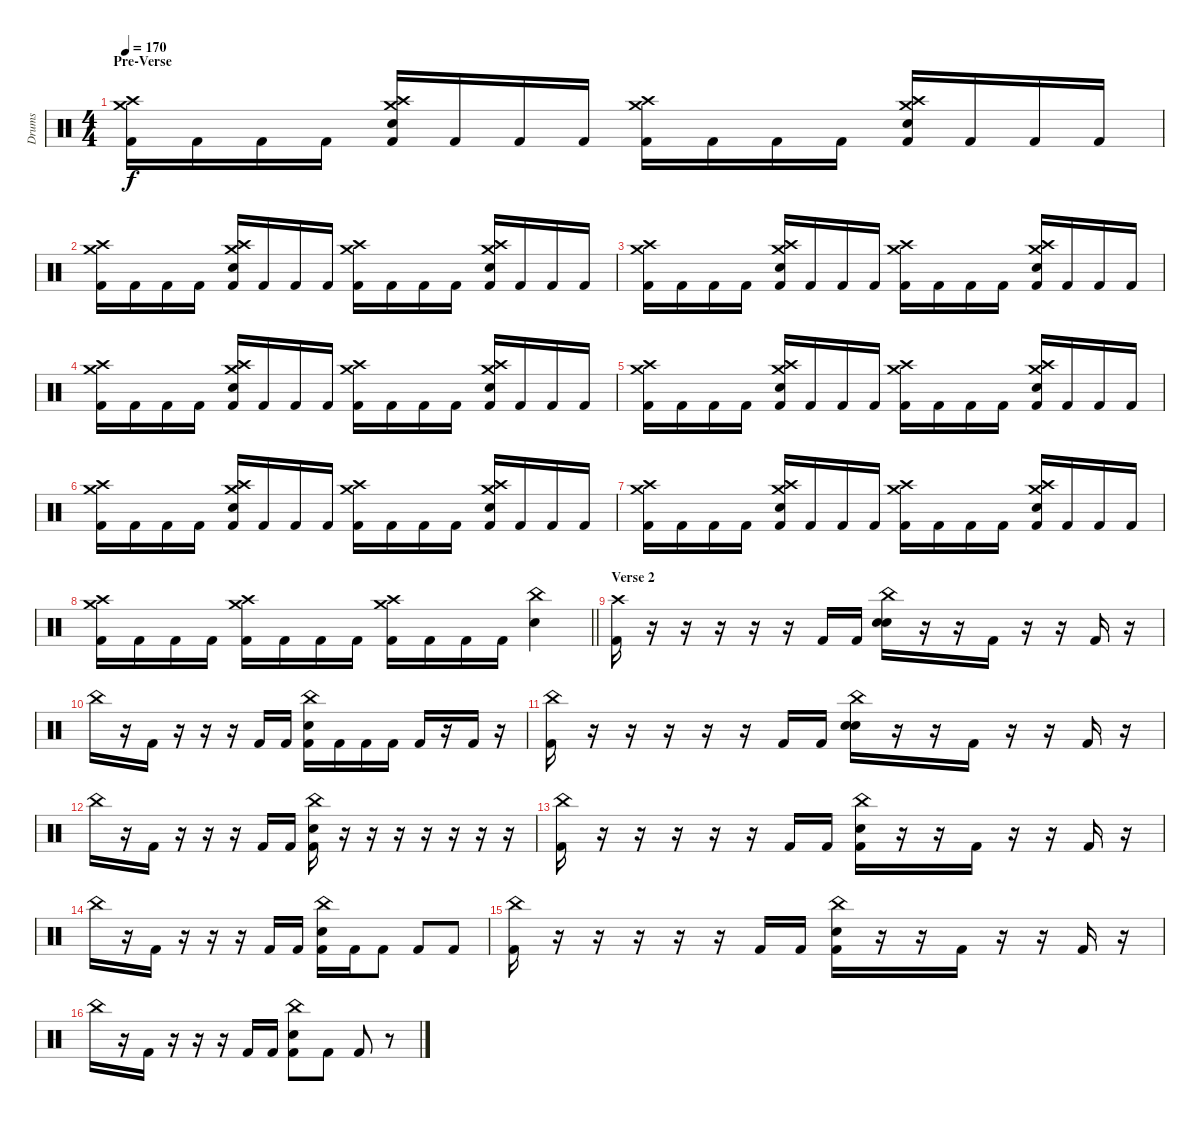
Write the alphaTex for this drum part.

\track ("Drums" "Drums") {instrument percussion}
\staff {score}
\articulation defaults
\ts (4 4)
\section ("" "Pre-Verse")
\tempo 170
\clef neutral
\ks c
("Kick (hit) 2" "Crash high (hit)" "Crash medium (hit)").16{dy f} "Kick (hit) 2".16 "Kick (hit) 2".16 "Kick (hit) 2".16 ("Kick (hit) 2" "Crash high (hit)" "Electric Snare (hit)" "Crash medium (hit)").16 "Kick (hit) 2".16 "Kick (hit) 2".16 "Kick (hit) 2".16 ("Kick (hit) 2" "Crash high (hit)" "Crash medium (hit)").16 "Kick (hit) 2".16 "Kick (hit) 2".16 "Kick (hit) 2".16 ("Kick (hit) 2" "Crash high (hit)" "Electric Snare (hit)" "Crash medium (hit)").16 "Kick (hit) 2".16 "Kick (hit) 2".16 "Kick (hit) 2".16 |
("Kick (hit) 2" "Crash high (hit)" "Crash medium (hit)").16 "Kick (hit) 2".16 "Kick (hit) 2".16 "Kick (hit) 2".16 ("Kick (hit) 2" "Crash high (hit)" "Electric Snare (hit)" "Crash medium (hit)").16 "Kick (hit) 2".16 "Kick (hit) 2".16 "Kick (hit) 2".16 ("Kick (hit) 2" "Crash high (hit)" "Crash medium (hit)").16 "Kick (hit) 2".16 "Kick (hit) 2".16 "Kick (hit) 2".16 ("Kick (hit) 2" "Crash high (hit)" "Electric Snare (hit)" "Crash medium (hit)").16 "Kick (hit) 2".16 "Kick (hit) 2".16 "Kick (hit) 2".16 |
("Kick (hit) 2" "Crash high (hit)" "Crash medium (hit)").16 "Kick (hit) 2".16 "Kick (hit) 2".16 "Kick (hit) 2".16 ("Kick (hit) 2" "Crash high (hit)" "Electric Snare (hit)" "Crash medium (hit)").16 "Kick (hit) 2".16 "Kick (hit) 2".16 "Kick (hit) 2".16 ("Kick (hit) 2" "Crash high (hit)" "Crash medium (hit)").16 "Kick (hit) 2".16 "Kick (hit) 2".16 "Kick (hit) 2".16 ("Kick (hit) 2" "Crash high (hit)" "Electric Snare (hit)" "Crash medium (hit)").16 "Kick (hit) 2".16 "Kick (hit) 2".16 "Kick (hit) 2".16 |
("Kick (hit) 2" "Crash high (hit)" "Crash medium (hit)").16 "Kick (hit) 2".16 "Kick (hit) 2".16 "Kick (hit) 2".16 ("Kick (hit) 2" "Crash high (hit)" "Electric Snare (hit)" "Crash medium (hit)").16 "Kick (hit) 2".16 "Kick (hit) 2".16 "Kick (hit) 2".16 ("Kick (hit) 2" "Crash high (hit)" "Crash medium (hit)").16 "Kick (hit) 2".16 "Kick (hit) 2".16 "Kick (hit) 2".16 ("Kick (hit) 2" "Crash high (hit)" "Electric Snare (hit)" "Crash medium (hit)").16 "Kick (hit) 2".16 "Kick (hit) 2".16 "Kick (hit) 2".16 |
("Kick (hit) 2" "Crash high (hit)" "Crash medium (hit)").16 "Kick (hit) 2".16 "Kick (hit) 2".16 "Kick (hit) 2".16 ("Kick (hit) 2" "Crash high (hit)" "Electric Snare (hit)" "Crash medium (hit)").16 "Kick (hit) 2".16 "Kick (hit) 2".16 "Kick (hit) 2".16 ("Kick (hit) 2" "Crash high (hit)" "Crash medium (hit)").16 "Kick (hit) 2".16 "Kick (hit) 2".16 "Kick (hit) 2".16 ("Kick (hit) 2" "Crash high (hit)" "Electric Snare (hit)" "Crash medium (hit)").16 "Kick (hit) 2".16 "Kick (hit) 2".16 "Kick (hit) 2".16 |
("Kick (hit) 2" "Crash high (hit)" "Crash medium (hit)").16 "Kick (hit) 2".16 "Kick (hit) 2".16 "Kick (hit) 2".16 ("Kick (hit) 2" "Crash high (hit)" "Electric Snare (hit)" "Crash medium (hit)").16 "Kick (hit) 2".16 "Kick (hit) 2".16 "Kick (hit) 2".16 ("Kick (hit) 2" "Crash high (hit)" "Crash medium (hit)").16 "Kick (hit) 2".16 "Kick (hit) 2".16 "Kick (hit) 2".16 ("Kick (hit) 2" "Crash high (hit)" "Electric Snare (hit)" "Crash medium (hit)").16 "Kick (hit) 2".16 "Kick (hit) 2".16 "Kick (hit) 2".16 |
("Kick (hit) 2" "Crash high (hit)" "Crash medium (hit)").16 "Kick (hit) 2".16 "Kick (hit) 2".16 "Kick (hit) 2".16 ("Kick (hit) 2" "Crash high (hit)" "Crash medium (hit)" "Electric Snare (hit)").16 "Kick (hit) 2".16 "Kick (hit) 2".16 "Kick (hit) 2".16 ("Kick (hit) 2" "Crash high (hit)" "Crash medium (hit)").16 "Kick (hit) 2".16 "Kick (hit) 2".16 "Kick (hit) 2".16 ("Kick (hit) 2" "Crash high (hit)" "Electric Snare (hit)" "Crash medium (hit)").16 "Kick (hit) 2".16 "Kick (hit) 2".16 "Kick (hit) 2".16 |
\barLineRight lightlight
("Crash high (hit)" "Crash medium (hit)" "Kick (hit) 2").16 "Kick (hit) 2".16 "Kick (hit) 2".16 "Kick (hit) 2".16 ("Crash high (hit)" "Crash medium (hit)" "Kick (hit) 2").16 "Kick (hit) 2".16 "Kick (hit) 2".16 "Kick (hit) 2".16 ("Crash high (hit)" "Crash medium (hit)" "Kick (hit) 2").16 "Kick (hit) 2".16 "Kick (hit) 2".16 "Kick (hit) 2".16 ("China (hit)" "Electric Snare (hit)").4 |
\section ("" "Verse 2")
("Crash high (hit)" "Kick (hit) 2").16 r.16 r.16 r.16 r.16 r.16 "Kick (hit) 2".16 "Kick (hit) 2".16 ("China (hit)" "Electric Snare (hit)" "Electric Snare (hit)").16 r.16 r.16 "Kick (hit) 2".16 r.16 r.16 "Kick (hit) 2".16 r.16 |
"China (hit)".16 r.16 "Kick (hit) 2".16 r.16 r.16 r.16 "Kick (hit) 2".16 "Kick (hit) 2".16 ("Electric Snare (hit)" "China (hit)" "Kick (hit) 2").16 "Kick (hit) 2".16 "Kick (hit) 2".16 "Kick (hit) 2".16 "Kick (hit) 2".16 r.16 "Kick (hit) 2".16 r.16 |
("Kick (hit) 2" "China (hit)").16 r.16 r.16 r.16 r.16 r.16 "Kick (hit) 2".16 "Kick (hit) 2".16 ("China (hit)" "Electric Snare (hit)" "Electric Snare (hit)").16 r.16 r.16 "Kick (hit) 2".16 r.16 r.16 "Kick (hit) 2".16 r.16 |
"China (hit)".16 r.16 "Kick (hit) 2".16 r.16 r.16 r.16 "Kick (hit) 2".16 "Kick (hit) 2".16 ("Electric Snare (hit)" "China (hit)" "Kick (hit) 2").16 r.16 r.16 r.16 r.16 r.16 r.16 r.16 |
("Kick (hit) 2" "China (hit)").16 r.16 r.16 r.16 r.16 r.16 "Kick (hit) 2".16 "Kick (hit) 2".16 ("China (hit)" "Kick (hit) 2" "Electric Snare (hit)").16 r.16 r.16 "Kick (hit) 2".16 r.16 r.16 "Kick (hit) 2".16 r.16 |
"China (hit)".16 r.16 "Kick (hit) 2".16 r.16 r.16 r.16 "Kick (hit) 2".16 "Kick (hit) 2".16 ("Electric Snare (hit)" "China (hit)" "Kick (hit) 2").16 "Kick (hit) 2".16 "Kick (hit) 2".8 "Kick (hit) 2".8 "Kick (hit) 2".8 |
("Kick (hit) 2" "China (hit)").16 r.16 r.16 r.16 r.16 r.16 "Kick (hit) 2".16 "Kick (hit) 2".16 ("China (hit)" "Kick (hit) 2" "Electric Snare (hit)").16 r.16 r.16 "Kick (hit) 2".16 r.16 r.16 "Kick (hit) 2".16 r.16 |
"China (hit)".16 r.16 "Kick (hit) 2".16 r.16 r.16 r.16 "Kick (hit) 2".16 "Kick (hit) 2".16 ("Electric Snare (hit)" "China (hit)" "Kick (hit) 2").8 "Kick (hit) 2".8 "Kick (hit) 2".8 r.8
